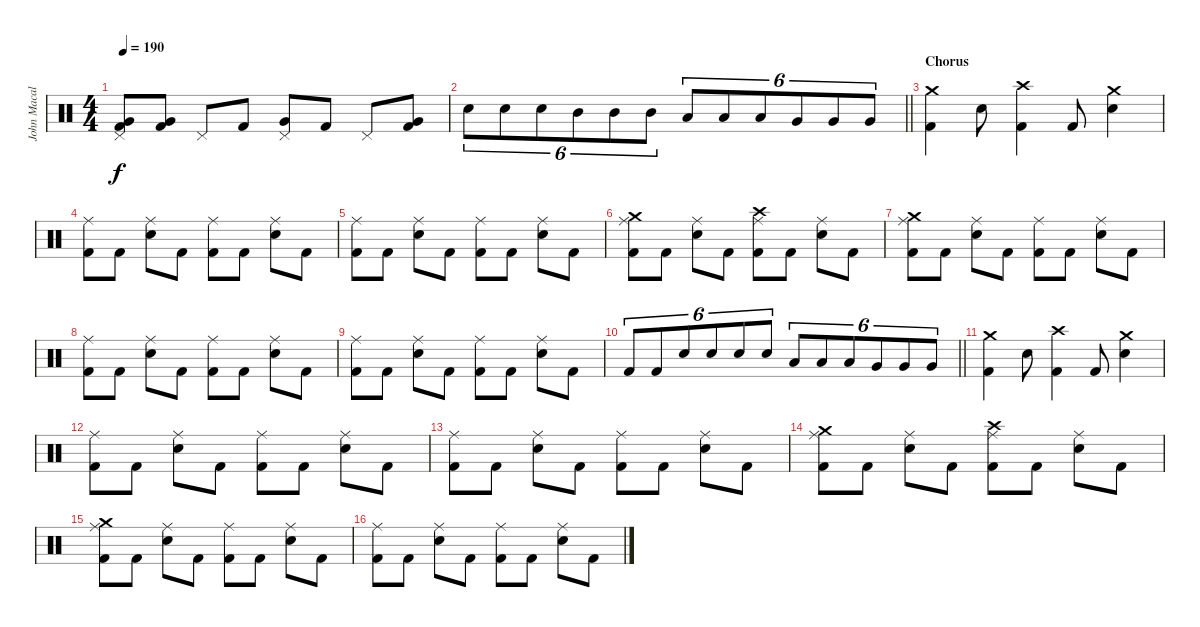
\track ("John Macaluso" "John Macal") {instrument percussion}
\staff {score}
\articulation defaults
\ts (4 4)
\tempo 190
\clef neutral
\ks c
("Pedal Hi-Hat (hit)" "Very Low Tom (hit)" "Kick (hit) 2").8{dy f} ("Very Low Tom (hit)" "Kick (hit) 2").8 "Pedal Hi-Hat (hit)".8 "Kick (hit) 2".8 ("Pedal Hi-Hat (hit)" "Very Low Tom (hit)").8 "Kick (hit) 2".8 "Pedal Hi-Hat (hit)".8 ("Very Low Tom (hit)" "Kick (hit) 2").8 |
\barLineRight lightlight "Snare (hit) 2".8{tu (6 4)} "Snare (hit) 2".8{tu (6 4)} "Snare (hit) 2".8{tu (6 4)} "Mid Tom (hit)".8{tu (6 4)} "Mid Tom (hit)".8{tu (6 4)} "Mid Tom (hit)".8{tu (6 4)} "Low Tom (hit)".8{tu (6 4)} "Low Tom (hit)".8{tu (6 4)} "Low Tom (hit)".8{tu (6 4)} "Very Low Tom (hit)".8{tu (6 4)} "Very Low Tom (hit)".8{tu (6 4)} "Very Low Tom (hit)".8{tu (6 4)}
|
\section ("" "Chorus")
("Crash medium (hit)" "Kick (hit) 2").4 "Snare (hit) 2".8 ("Crash high (hit)" "Kick (hit) 2").4 "Kick (hit) 2".8 ("Crash medium (hit)" "Snare (hit) 2").4 |
("Ride (middle)" "Kick (hit) 2").8 "Kick (hit) 2".8 ("Ride (middle)" "Snare (hit) 2").8 "Kick (hit) 2".8 ("Ride (middle)" "Kick (hit) 2").8 "Kick (hit) 2".8 ("Ride (middle)" "Snare (hit) 2").8 "Kick (hit) 2".8 |
("Ride (middle)" "Kick (hit) 2").8 "Kick (hit) 2".8 ("Ride (middle)" "Snare (hit) 2").8 "Kick (hit) 2".8 ("Ride (middle)" "Kick (hit) 2").8 "Kick (hit) 2".8 ("Ride (middle)" "Snare (hit) 2").8 "Kick (hit) 2".8 |
("Crash medium (hit)" "Ride (middle)" "Kick (hit) 2").8 "Kick (hit) 2".8 ("Ride (middle)" "Snare (hit) 2").8 "Kick (hit) 2".8 ("Crash high (hit)" "Ride (middle)" "Kick (hit) 2").8 "Kick (hit) 2".8 ("Ride (middle)" "Snare (hit) 2").8 "Kick (hit) 2".8 |
("Crash medium (hit)" "Ride (middle)" "Kick (hit) 2").8 "Kick (hit) 2".8 ("Ride (middle)" "Snare (hit) 2").8 "Kick (hit) 2".8 ("Ride (middle)" "Kick (hit) 2").8 "Kick (hit) 2".8 ("Ride (middle)" "Snare (hit) 2").8 "Kick (hit) 2".8 |
("Ride (middle)" "Kick (hit) 2").8 "Kick (hit) 2".8 ("Ride (middle)" "Snare (hit) 2").8 "Kick (hit) 2".8 ("Ride (middle)" "Kick (hit) 2").8 "Kick (hit) 2".8 ("Ride (middle)" "Snare (hit) 2").8 "Kick (hit) 2".8 |
("Ride (middle)" "Kick (hit) 2").8 "Kick (hit) 2".8 ("Ride (middle)" "Snare (hit) 2").8 "Kick (hit) 2".8 ("Ride (middle)" "Kick (hit) 2").8 "Kick (hit) 2".8 ("Ride (middle)" "Snare (hit) 2").8 "Kick (hit) 2".8 |
\barLineRight lightlight "Kick (hit) 2".8{tu (6 4)} "Kick (hit) 2".8{tu (6 4)} "Snare (hit) 2".8{tu (6 4)} "Snare (hit) 2".8{tu (6 4)} "Snare (hit) 2".8{tu (6 4)} "Snare (hit) 2".8{tu (6 4)} "Low Tom (hit)".8{tu (6 4)} "Low Tom (hit)".8{tu (6 4)} "Low Tom (hit)".8{tu (6 4)} "Very Low Tom (hit)".8{tu (6 4)} "Very Low Tom (hit)".8{tu (6 4)} "Very Low Tom (hit)".8{tu (6 4)}
|
("Crash medium (hit)" "Kick (hit) 2").4 "Snare (hit) 2".8 ("Crash high (hit)" "Kick (hit) 2").4 "Kick (hit) 2".8 ("Crash medium (hit)" "Snare (hit) 2").4 |
("Ride (middle)" "Kick (hit) 2").8 "Kick (hit) 2".8 ("Ride (middle)" "Snare (hit) 2").8 "Kick (hit) 2".8 ("Ride (middle)" "Kick (hit) 2").8 "Kick (hit) 2".8 ("Ride (middle)" "Snare (hit) 2").8 "Kick (hit) 2".8 |
("Ride (middle)" "Kick (hit) 2").8 "Kick (hit) 2".8 ("Ride (middle)" "Snare (hit) 2").8 "Kick (hit) 2".8 ("Ride (middle)" "Kick (hit) 2").8 "Kick (hit) 2".8 ("Ride (middle)" "Snare (hit) 2").8 "Kick (hit) 2".8 |
("Crash medium (hit)" "Ride (middle)" "Kick (hit) 2").8 "Kick (hit) 2".8 ("Ride (middle)" "Snare (hit) 2").8 "Kick (hit) 2".8 ("Crash high (hit)" "Ride (middle)" "Kick (hit) 2").8 "Kick (hit) 2".8 ("Ride (middle)" "Snare (hit) 2").8 "Kick (hit) 2".8 |
("Crash medium (hit)" "Ride (middle)" "Kick (hit) 2").8 "Kick (hit) 2".8 ("Ride (middle)" "Snare (hit) 2").8 "Kick (hit) 2".8 ("Ride (middle)" "Kick (hit) 2").8 "Kick (hit) 2".8 ("Ride (middle)" "Snare (hit) 2").8 "Kick (hit) 2".8 |
("Ride (middle)" "Kick (hit) 2").8 "Kick (hit) 2".8 ("Ride (middle)" "Snare (hit) 2").8 "Kick (hit) 2".8 ("Ride (middle)" "Kick (hit) 2").8 "Kick (hit) 2".8 ("Ride (middle)" "Snare (hit) 2").8 "Kick (hit) 2".8
